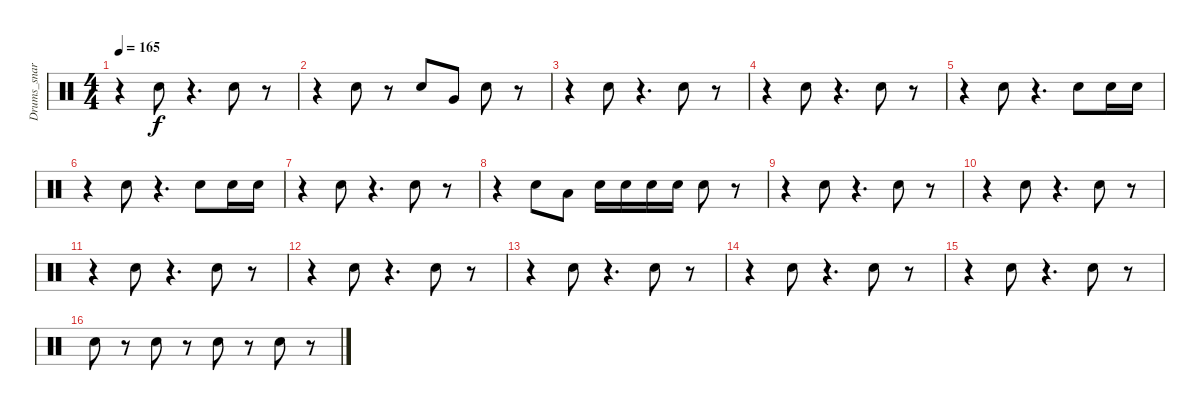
\track ("Drums_snare&tom" "Drums_snar") {instrument percussion}
\staff {score}
\articulation defaults
\ts (4 4)
\tempo 165
\clef neutral
\ks c
r.4{dy f} "Snare (hit) 2".8 r.4{d} "Snare (hit) 2".8 r.8 |
r.4 "Snare (hit) 2".8 r.8 "Snare (hit) 2".8 "Very Low Tom (hit)".8 "Snare (hit) 2".8 r.8 |
r.4 "Snare (hit) 2".8 r.4{d} "Snare (hit) 2".8 r.8 |
r.4 "Snare (hit) 2".8 r.4{d} "Snare (hit) 2".8 r.8 |
r.4 "Snare (hit) 2".8 r.4{d} "Snare (hit) 2".8 "Snare (hit) 2".16 "Snare (hit) 2".16 |
r.4 "Snare (hit) 2".8 r.4{d} "Snare (hit) 2".8 "Snare (hit) 2".16 "Snare (hit) 2".16 |
r.4 "Snare (hit) 2".8 r.4{d} "Snare (hit) 2".8 r.8 |
r.4 "Snare (hit) 2".8 "Low Tom (hit)".8 "Snare (hit) 2".16 "Snare (hit) 2".16 "Snare (hit) 2".16 "Snare (hit) 2".16 "Snare (hit) 2".8 r.8 |
r.4 "Snare (hit) 2".8 r.4{d} "Snare (hit) 2".8 r.8 |
r.4 "Snare (hit) 2".8 r.4{d} "Snare (hit) 2".8 r.8 |
r.4 "Snare (hit) 2".8 r.4{d} "Snare (hit) 2".8 r.8 |
r.4 "Snare (hit) 2".8 r.4{d} "Snare (hit) 2".8 r.8 |
r.4 "Snare (hit) 2".8 r.4{d} "Snare (hit) 2".8 r.8 |
r.4 "Snare (hit) 2".8 r.4{d} "Snare (hit) 2".8 r.8 |
r.4 "Snare (hit) 2".8 r.4{d} "Snare (hit) 2".8 r.8 |
"Snare (hit) 2".8 r.8 "Snare (hit) 2".8 r.8 "Snare (hit) 2".8 r.8 "Snare (hit) 2".8 r.8
